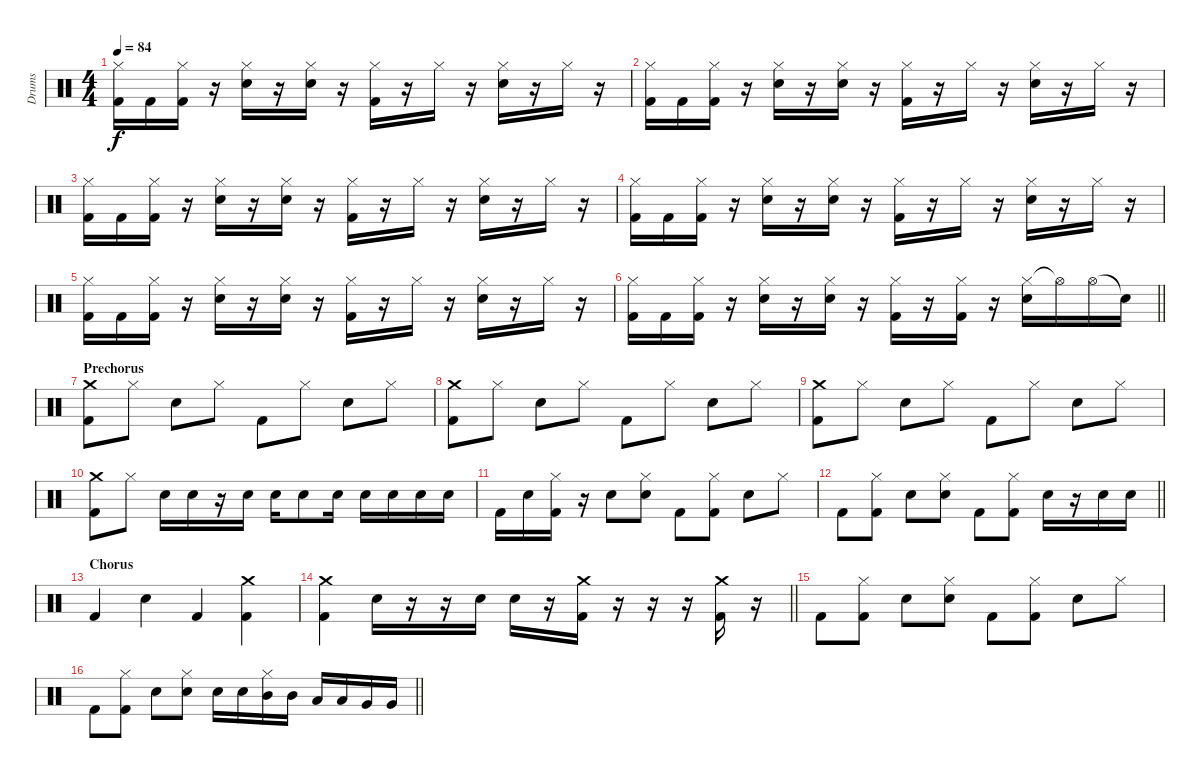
\track ("Drums" "Drums") {instrument percussion}
\staff {score}
\articulation defaults
\ts (4 4)
\tempo 84
\clef neutral
\ks c
("Hi-Hat (closed)" "Kick (hit) 2").16{dy f} "Kick (hit) 2".16 ("Hi-Hat (closed)" "Kick (hit) 2").16 r.16 ("Hi-Hat (closed)" "Snare (hit) 2").16 r.16 ("Hi-Hat (closed)" "Snare (hit) 2").16 r.16 ("Hi-Hat (closed)" "Kick (hit) 2").16 r.16 "Hi-Hat (closed)".16 r.16 ("Hi-Hat (closed)" "Snare (hit) 2").16 r.16 "Hi-Hat (closed)".16 r.16 |
("Hi-Hat (closed)" "Kick (hit) 2").16 "Kick (hit) 2".16 ("Hi-Hat (closed)" "Kick (hit) 2").16 r.16 ("Hi-Hat (closed)" "Snare (hit) 2").16 r.16 ("Hi-Hat (closed)" "Snare (hit) 2").16 r.16 ("Hi-Hat (closed)" "Kick (hit) 2").16 r.16 "Hi-Hat (closed)".16 r.16 ("Hi-Hat (closed)" "Snare (hit) 2").16 r.16 "Hi-Hat (closed)".16 r.16 |
("Hi-Hat (closed)" "Kick (hit) 2").16 "Kick (hit) 2".16 ("Hi-Hat (closed)" "Kick (hit) 2").16 r.16 ("Hi-Hat (closed)" "Snare (hit) 2").16 r.16 ("Hi-Hat (closed)" "Snare (hit) 2").16 r.16 ("Hi-Hat (closed)" "Kick (hit) 2").16 r.16 "Hi-Hat (closed)".16 r.16 ("Hi-Hat (closed)" "Snare (hit) 2").16 r.16 "Hi-Hat (closed)".16 r.16 |
("Hi-Hat (closed)" "Kick (hit) 2").16 "Kick (hit) 2".16 ("Hi-Hat (closed)" "Kick (hit) 2").16 r.16 ("Hi-Hat (closed)" "Snare (hit) 2").16 r.16 ("Hi-Hat (closed)" "Snare (hit) 2").16 r.16 ("Hi-Hat (closed)" "Kick (hit) 2").16 r.16 "Hi-Hat (closed)".16 r.16 ("Hi-Hat (closed)" "Snare (hit) 2").16 r.16 "Hi-Hat (closed)".16 r.16 |
("Hi-Hat (closed)" "Kick (hit) 2").16 "Kick (hit) 2".16 ("Hi-Hat (closed)" "Kick (hit) 2").16 r.16 ("Hi-Hat (closed)" "Snare (hit) 2").16 r.16 ("Hi-Hat (closed)" "Snare (hit) 2").16 r.16 ("Hi-Hat (closed)" "Kick (hit) 2").16 r.16 "Hi-Hat (closed)".16 r.16 ("Hi-Hat (closed)" "Snare (hit) 2").16 r.16 "Hi-Hat (closed)".16 r.16 |
\barLineRight lightlight
("Hi-Hat (closed)" "Kick (hit) 2").16 "Kick (hit) 2".16 ("Hi-Hat (closed)" "Kick (hit) 2").16 r.16 ("Hi-Hat (closed)" "Snare (hit) 2").16 r.16 ("Hi-Hat (closed)" "Snare (hit) 2").16 r.16 ("Hi-Hat (closed)" "Kick (hit) 2").16 r.16 ("Hi-Hat (closed)" "Kick (hit) 2").16 r.16 ("Hi-Hat (closed)" "Snare (hit) 2").16 "Hi-Hat (open)"{t}.16 "Hi-Hat (open)".16 "Snare (hit)"{t}.16 |
\section ("" "Prechorus")
("Crash medium (hit)" "Kick (hit) 2").8 "Hi-Hat (closed)".8 "Snare (hit) 2".8 "Hi-Hat (closed)".8 "Kick (hit) 2".8 "Hi-Hat (closed)".8 "Snare (hit) 2".8 "Hi-Hat (closed)".8 |
("Crash medium (hit)" "Kick (hit) 2").8 "Hi-Hat (closed)".8 "Snare (hit) 2".8 "Hi-Hat (closed)".8 "Kick (hit) 2".8 "Hi-Hat (closed)".8 "Snare (hit) 2".8 "Hi-Hat (closed)".8 |
("Crash medium (hit)" "Kick (hit) 2").8 "Hi-Hat (closed)".8 "Snare (hit) 2".8 "Hi-Hat (closed)".8 "Kick (hit) 2".8 "Hi-Hat (closed)".8 "Snare (hit) 2".8 "Hi-Hat (closed)".8 |
("Crash medium (hit)" "Kick (hit) 2").8 "Hi-Hat (closed)".8 "Snare (hit) 2".16 "Snare (hit) 2".16 r.16 "Snare (hit) 2".16 "Snare (hit) 2".16 "Snare (hit) 2".8 "Snare (hit) 2".16 "Snare (hit) 2".16 "Snare (hit) 2".16 "Snare (hit) 2".16 "Snare (hit) 2".16 |
"Kick (hit) 2".16 "Snare (hit) 2".16 ("Hi-Hat (closed)" "Kick (hit) 2").16 r.16 "Snare (hit) 2".8 ("Hi-Hat (closed)" "Snare (hit) 2").8 "Kick (hit) 2".8 ("Hi-Hat (closed)" "Kick (hit) 2").8 "Snare (hit) 2".8 "Hi-Hat (closed)".8 |
\barLineRight lightlight "Kick (hit) 2".8
("Hi-Hat (closed)" "Kick (hit) 2").8 "Snare (hit) 2".8 ("Hi-Hat (closed)" "Snare (hit) 2").8 "Kick (hit) 2".8 ("Hi-Hat (closed)" "Kick (hit) 2").8 "Snare (hit) 2".16 r.16 "Snare (hit) 2".16 "Snare (hit) 2".16 |
\section ("" "Chorus")
"Kick (hit) 2".4 "Snare (hit) 2".4 "Kick (hit) 2".4 ("Crash medium (hit)" "Kick (hit) 2").4 |
\barLineRight lightlight
("Crash medium (hit)" "Kick (hit) 2").4 "Snare (hit) 2".16 r.16 r.16 "Snare (hit) 2".16 "Snare (hit) 2".16 r.16 ("Crash medium (hit)" "Kick (hit) 2").16 r.16 r.16 r.16 ("Crash medium (hit)" "Kick (hit) 2").16 r.16 |
"Kick (hit) 2".8 ("Hi-Hat (closed)" "Kick (hit) 2").8 "Snare (hit) 2".8 ("Hi-Hat (closed)" "Snare (hit) 2").8 "Kick (hit) 2".8 ("Hi-Hat (closed)" "Kick (hit) 2").8 "Snare (hit) 2".8 "Hi-Hat (closed)".8 |
\barLineRight lightlight "Kick (hit) 2".8
("Hi-Hat (closed)" "Kick (hit) 2").8 "Snare (hit) 2".8 ("Hi-Hat (closed)" "Snare (hit) 2").8 "Snare (hit) 2".16 "Snare (hit) 2".16 ("Hi-Hat (closed)" "Mid Tom (hit)").16 "Mid Tom (hit)".16 "Low Tom (hit)".16 "Low Tom (hit)".16 "Very Low Tom (hit)".16 "Very Low Tom (hit)".16
